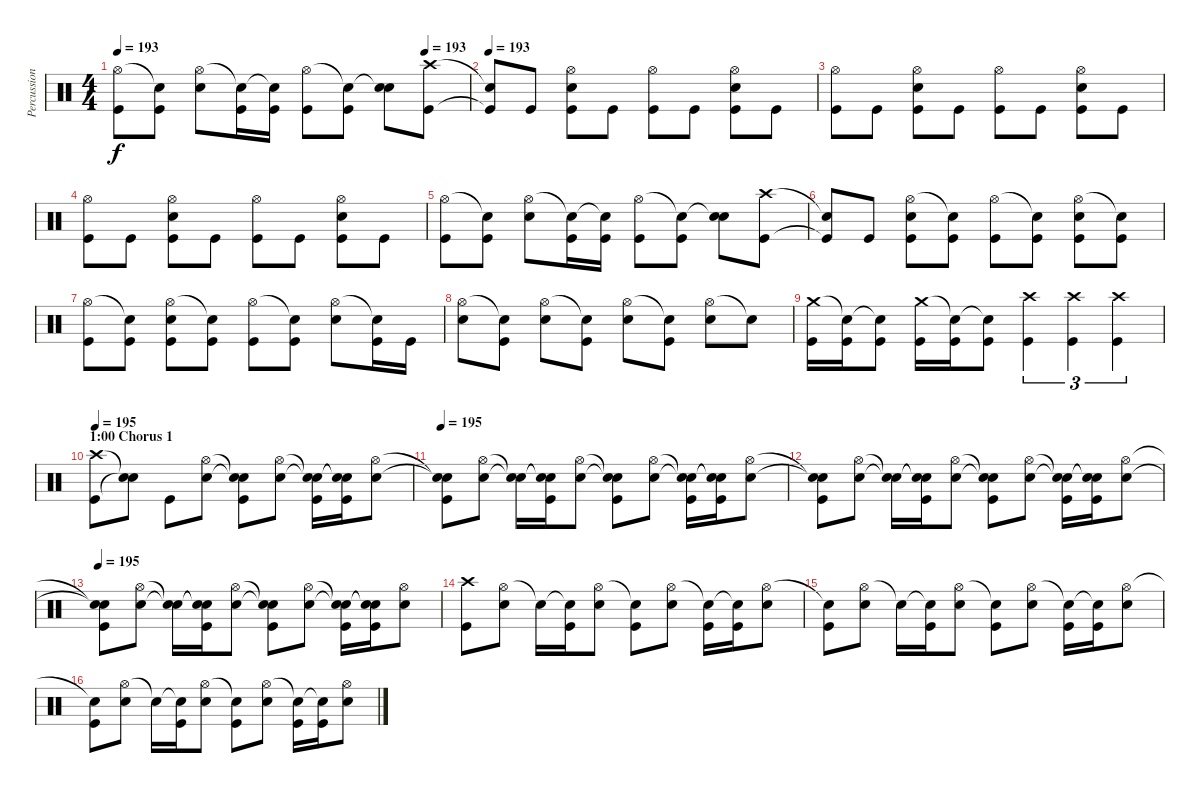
\track ("Percussion" "Percussion") {instrument percussion}
\staff {score}
\articulation defaults
\ts (4 4)
\tempo 193
\tempo (193 0.875)
\clef neutral
\ks c
("Hi-Hat (open)" "Kick (hit)").8{dy f} ("Snare (hit)"{t} "Kick (hit)").8 ("Hi-Hat (open)" "Snare (hit) 2").8 ("Snare (hit)"{t} "Kick (hit)").16 ("Snare (hit)"{t} "Kick (hit)").16 ("Hi-Hat (open)" "Kick (hit)").8 ("Snare (hit)"{t} "Kick (hit)").8 ("Snare (hit)"{t} "Snare (hit) 2").8 ("Crash high (hit)" "Kick (hit)").8 |
\tempo 193
("Snare (hit)"{t} "Kick (hit)"{t}).8 "Kick (hit)".8 ("Hi-Hat (open)" "Snare (hit) 2" "Kick (hit)").8 "Kick (hit)".8 ("Hi-Hat (open)" "Kick (hit)").8 "Kick (hit)".8 ("Hi-Hat (open)" "Snare (hit) 2" "Kick (hit)").8 "Kick (hit)".8 |
("Hi-Hat (open)" "Kick (hit)").8 "Kick (hit)".8 ("Hi-Hat (open)" "Snare (hit) 2" "Kick (hit)").8 "Kick (hit)".8 ("Hi-Hat (open)" "Kick (hit)").8 "Kick (hit)".8 ("Hi-Hat (open)" "Snare (hit) 2" "Kick (hit)").8 "Kick (hit)".8 |
("Hi-Hat (open)" "Kick (hit)").8 "Kick (hit)".8 ("Hi-Hat (open)" "Snare (hit) 2" "Kick (hit)").8 "Kick (hit)".8 ("Hi-Hat (open)" "Kick (hit)").8 "Kick (hit)".8 ("Hi-Hat (open)" "Snare (hit) 2" "Kick (hit)").8 "Kick (hit)".8 |
("Hi-Hat (open)" "Kick (hit)").8 ("Snare (hit)"{t} "Kick (hit)").8 ("Hi-Hat (open)" "Snare (hit) 2").8 ("Snare (hit)"{t} "Kick (hit)").16 ("Snare (hit)"{t} "Kick (hit)").16 ("Hi-Hat (open)" "Kick (hit)").8 ("Snare (hit)"{t} "Kick (hit)").8 ("Snare (hit)"{t} "Snare (hit) 2").8 ("Crash high (hit)" "Kick (hit)").8 |
("Snare (hit)"{t} "Kick (hit)"{t}).8 "Kick (hit)".8 ("Hi-Hat (open)" "Snare (hit) 2" "Kick (hit)").8 ("Snare (hit)"{t} "Kick (hit)").8 ("Hi-Hat (open)" "Kick (hit)").8 ("Snare (hit)"{t} "Kick (hit)").8 ("Hi-Hat (open)" "Snare (hit) 2" "Kick (hit)").8 ("Snare (hit)"{t} "Kick (hit)").8 |
("Hi-Hat (open)" "Kick (hit)").8 ("Snare (hit)"{t} "Kick (hit)").8 ("Hi-Hat (open)" "Snare (hit) 2" "Kick (hit)").8 ("Snare (hit)"{t} "Kick (hit)").8 ("Hi-Hat (open)" "Kick (hit)").8 ("Snare (hit)"{t} "Kick (hit)").8 ("Hi-Hat (open)" "Snare (hit) 2").8 ("Snare (hit)"{t} "Kick (hit)").16 "Kick (hit)".16 |
("Hi-Hat (open)" "Snare (hit) 2").8 ("Snare (hit)"{t} "Kick (hit)").8 ("Hi-Hat (open)" "Snare (hit) 2").8 ("Snare (hit)"{t} "Kick (hit)").8 ("Hi-Hat (open)" "Snare (hit) 2").8 ("Snare (hit)"{t} "Kick (hit)").8 ("Hi-Hat (open)" "Snare (hit) 2").8 "Snare (hit)"{t}.8 |
("Crash medium (hit)" "Kick (hit)").16 ("Snare (hit)"{t} "Kick (hit)").16 ("Snare (hit)"{t} "Kick (hit)").8 ("Crash medium (hit)" "Kick (hit)").16 ("Snare (hit)"{t} "Kick (hit)").16 ("Snare (hit)"{t} "Kick (hit)").8 ("Crash high (hit)" "Kick (hit)").4{tu (3 2)} ("Crash high (hit)" "Kick (hit)").4{tu (3 2)} ("Crash high (hit)" "Kick (hit)").4{tu (3 2)} |
\section ("" "1:00 Chorus 1")
\tempo 195
("Crash high (hit)" "Kick (hit)").8 ("Snare (hit)"{t} "Snare (hit)"{t}).8 "Kick (hit)".8 ("Hi-Hat (open)" "Snare (hit) 2").8 ("Snare (hit)"{t} "Snare (hit)"{t} "Kick (hit)").8 ("Hi-Hat (open)" "Snare (hit) 2").8 ("Snare (hit)"{t} "Snare (hit)"{t} "Kick (hit)").16 ("Snare (hit)"{t} "Snare (hit)"{t} "Kick (hit)").16 ("Hi-Hat (open)" "Snare (hit) 2").8 |
\tempo 195
("Snare (hit)"{t} "Snare (hit)"{t} "Kick (hit)").8 ("Hi-Hat (open)" "Snare (hit) 2").8 ("Snare (hit)"{t} "Snare (hit)"{t}).16 ("Snare (hit)"{t} "Snare (hit)"{t} "Kick (hit)").16 ("Hi-Hat (open)" "Snare (hit) 2").8 ("Snare (hit)"{t} "Snare (hit)"{t} "Kick (hit)").8 ("Hi-Hat (open)" "Snare (hit) 2").8 ("Snare (hit)"{t} "Snare (hit)"{t} "Kick (hit)").16 ("Snare (hit)"{t} "Snare (hit)"{t} "Kick (hit)").16 ("Hi-Hat (open)" "Snare (hit) 2").8 |
("Snare (hit)"{t} "Snare (hit)"{t} "Kick (hit)").8 ("Hi-Hat (open)" "Snare (hit) 2").8 ("Snare (hit)"{t} "Snare (hit)"{t}).16 ("Snare (hit)"{t} "Snare (hit)"{t} "Kick (hit)").16 ("Hi-Hat (open)" "Snare (hit) 2").8 ("Snare (hit)"{t} "Snare (hit)"{t} "Kick (hit)").8 ("Hi-Hat (open)" "Snare (hit) 2").8 ("Snare (hit)"{t} "Snare (hit)"{t} "Kick (hit)").16 ("Snare (hit)"{t} "Snare (hit)"{t} "Kick (hit)").16 ("Hi-Hat (open)" "Snare (hit) 2").8 |
\tempo 195
("Snare (hit)"{t} "Snare (hit)"{t} "Kick (hit)").8 ("Hi-Hat (open)" "Snare (hit) 2").8 ("Snare (hit)"{t} "Snare (hit)"{t}).16 ("Snare (hit)"{t} "Snare (hit)"{t} "Kick (hit)").16 ("Hi-Hat (open)" "Snare (hit) 2").8 ("Snare (hit)"{t} "Snare (hit)"{t} "Kick (hit)").8 ("Hi-Hat (open)" "Snare (hit) 2").8 ("Snare (hit)"{t} "Snare (hit)"{t} "Kick (hit)").16 ("Snare (hit)"{t} "Snare (hit)"{t} "Kick (hit)").16 ("Hi-Hat (open)" "Snare (hit) 2").8 |
("Crash high (hit)" "Kick (hit)").8 ("Hi-Hat (open)" "Snare (hit) 2").8 "Snare (hit)"{t}.16 ("Snare (hit)"{t} "Kick (hit)").16 ("Hi-Hat (open)" "Snare (hit) 2").8 ("Snare (hit)"{t} "Kick (hit)").8 ("Hi-Hat (open)" "Snare (hit) 2").8 ("Snare (hit)"{t} "Kick (hit)").16 ("Snare (hit)"{t} "Kick (hit)").16 ("Hi-Hat (open)" "Snare (hit) 2").8 |
("Snare (hit)"{t} "Kick (hit)").8 ("Hi-Hat (open)" "Snare (hit) 2").8 "Snare (hit)"{t}.16 ("Snare (hit)"{t} "Kick (hit)").16 ("Hi-Hat (open)" "Snare (hit) 2").8 ("Snare (hit)"{t} "Kick (hit)").8 ("Hi-Hat (open)" "Snare (hit) 2").8 ("Snare (hit)"{t} "Kick (hit)").16 ("Snare (hit)"{t} "Kick (hit)").16 ("Hi-Hat (open)" "Snare (hit) 2").8 |
("Snare (hit)"{t} "Kick (hit)").8 ("Hi-Hat (open)" "Snare (hit) 2").8 "Snare (hit)"{t}.16 ("Snare (hit)"{t} "Kick (hit)").16 ("Hi-Hat (open)" "Snare (hit) 2").8 ("Snare (hit)"{t} "Kick (hit)").8 ("Hi-Hat (open)" "Snare (hit) 2").8 ("Snare (hit)"{t} "Kick (hit)").16 ("Snare (hit)"{t} "Kick (hit)").16 ("Hi-Hat (open)" "Snare (hit) 2").8
